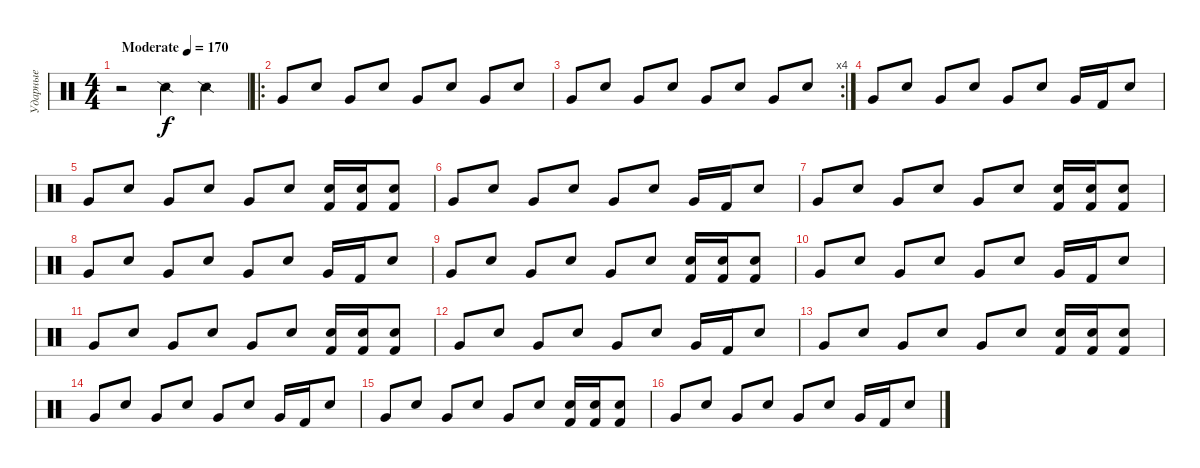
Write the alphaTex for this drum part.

\track ("Ударные" "Ударные") {instrument percussion bank 25}
\staff {score}
\articulation defaults
\ts (4 4)
\tempo (170 "Moderate")
\clef neutral
\ks c
r.2{dy f} "Snare (side stick) 2".4 "Snare (side stick) 2".4 |
\ro "Very Low Tom (hit)".8 "Electric Snare (hit)".8 "Very Low Tom (hit)".8 "Electric Snare (hit)".8 "Very Low Tom (hit)".8 "Electric Snare (hit)".8 "Very Low Tom (hit)".8 "Electric Snare (hit)".8
|
\rc 4 "Very Low Tom (hit)".8 "Electric Snare (hit)".8 "Very Low Tom (hit)".8 "Electric Snare (hit)".8 "Very Low Tom (hit)".8 "Electric Snare (hit)".8 "Very Low Tom (hit)".8 "Electric Snare (hit)".8
|
"Very Low Tom (hit)".8 "Electric Snare (hit)".8 "Very Low Tom (hit)".8 "Electric Snare (hit)".8 "Very Low Tom (hit)".8 "Electric Snare (hit)".8 "Very Low Tom (hit)".16 "Kick (hit) 2".16 "Electric Snare (hit)".8 |
"Very Low Tom (hit)".8 "Electric Snare (hit)".8 "Very Low Tom (hit)".8 "Electric Snare (hit)".8 "Very Low Tom (hit)".8 "Electric Snare (hit)".8 ("Electric Snare (hit)" "Kick (hit) 2").16 ("Snare (hit) 2" "Kick (hit) 2").16 ("Electric Snare (hit)" "Kick (hit) 2").8 |
"Very Low Tom (hit)".8 "Electric Snare (hit)".8 "Very Low Tom (hit)".8 "Electric Snare (hit)".8 "Very Low Tom (hit)".8 "Electric Snare (hit)".8 "Very Low Tom (hit)".16 "Kick (hit) 2".16 "Electric Snare (hit)".8 |
"Very Low Tom (hit)".8 "Electric Snare (hit)".8 "Very Low Tom (hit)".8 "Electric Snare (hit)".8 "Very Low Tom (hit)".8 "Electric Snare (hit)".8 ("Electric Snare (hit)" "Kick (hit) 2").16 ("Snare (hit) 2" "Kick (hit) 2").16 ("Electric Snare (hit)" "Kick (hit) 2").8 |
"Very Low Tom (hit)".8 "Electric Snare (hit)".8 "Very Low Tom (hit)".8 "Electric Snare (hit)".8 "Very Low Tom (hit)".8 "Electric Snare (hit)".8 "Very Low Tom (hit)".16 "Kick (hit) 2".16 "Electric Snare (hit)".8 |
"Very Low Tom (hit)".8 "Electric Snare (hit)".8 "Very Low Tom (hit)".8 "Electric Snare (hit)".8 "Very Low Tom (hit)".8 "Electric Snare (hit)".8 ("Electric Snare (hit)" "Kick (hit) 2").16 ("Snare (hit) 2" "Kick (hit) 2").16 ("Electric Snare (hit)" "Kick (hit) 2").8 |
"Very Low Tom (hit)".8 "Electric Snare (hit)".8 "Very Low Tom (hit)".8 "Electric Snare (hit)".8 "Very Low Tom (hit)".8 "Electric Snare (hit)".8 "Very Low Tom (hit)".16 "Kick (hit) 2".16 "Electric Snare (hit)".8 |
"Very Low Tom (hit)".8 "Electric Snare (hit)".8 "Very Low Tom (hit)".8 "Electric Snare (hit)".8 "Very Low Tom (hit)".8 "Electric Snare (hit)".8 ("Electric Snare (hit)" "Kick (hit) 2").16 ("Snare (hit) 2" "Kick (hit) 2").16 ("Electric Snare (hit)" "Kick (hit) 2").8 |
"Very Low Tom (hit)".8 "Electric Snare (hit)".8 "Very Low Tom (hit)".8 "Electric Snare (hit)".8 "Very Low Tom (hit)".8 "Electric Snare (hit)".8 "Very Low Tom (hit)".16 "Kick (hit) 2".16 "Electric Snare (hit)".8 |
"Very Low Tom (hit)".8 "Electric Snare (hit)".8 "Very Low Tom (hit)".8 "Electric Snare (hit)".8 "Very Low Tom (hit)".8 "Electric Snare (hit)".8 ("Electric Snare (hit)" "Kick (hit) 2").16 ("Snare (hit) 2" "Kick (hit) 2").16 ("Electric Snare (hit)" "Kick (hit) 2").8 |
"Very Low Tom (hit)".8 "Electric Snare (hit)".8 "Very Low Tom (hit)".8 "Electric Snare (hit)".8 "Very Low Tom (hit)".8 "Electric Snare (hit)".8 "Very Low Tom (hit)".16 "Kick (hit) 2".16 "Electric Snare (hit)".8 |
"Very Low Tom (hit)".8 "Electric Snare (hit)".8 "Very Low Tom (hit)".8 "Electric Snare (hit)".8 "Very Low Tom (hit)".8 "Electric Snare (hit)".8 ("Electric Snare (hit)" "Kick (hit) 2").16 ("Snare (hit) 2" "Kick (hit) 2").16 ("Electric Snare (hit)" "Kick (hit) 2").8 |
"Very Low Tom (hit)".8 "Electric Snare (hit)".8 "Very Low Tom (hit)".8 "Electric Snare (hit)".8 "Very Low Tom (hit)".8 "Electric Snare (hit)".8 "Very Low Tom (hit)".16 "Kick (hit) 2".16 "Electric Snare (hit)".8
